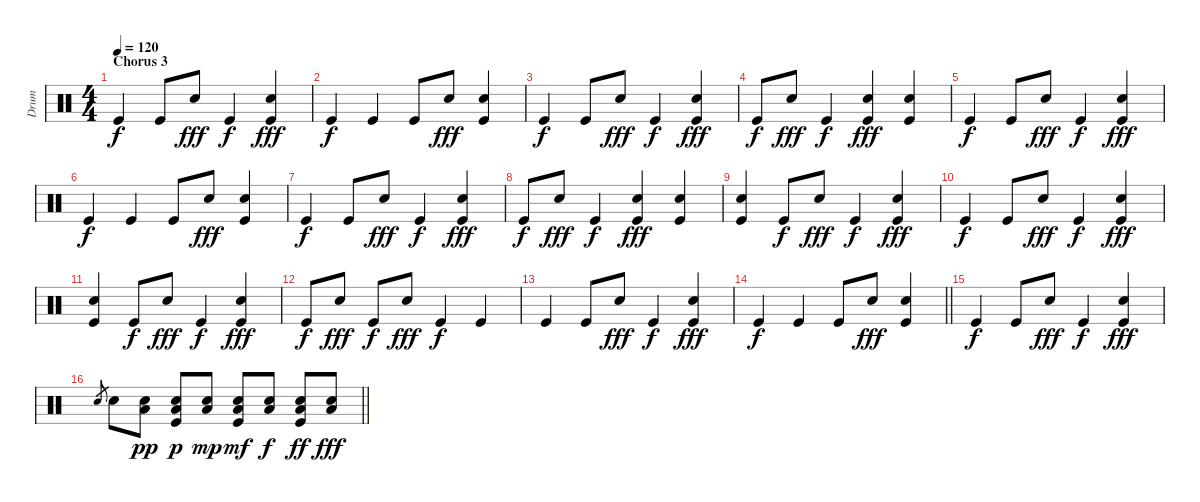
\track ("Drum" "Drum") {instrument percussion}
\staff {score}
\articulation defaults
\ts (4 4)
\section ("" "Chorus 3")
\tempo 120
\clef neutral
\ks c "Kick (hit)".4{dy f} "Kick (hit)".8 "Electric Snare (hit)".8{dy fff} "Kick (hit)".4{dy f}
("Kick (hit)" "Electric Snare (hit)").4{dy fff} |
"Kick (hit)".4{dy f} "Kick (hit)".4 "Kick (hit)".8 "Electric Snare (hit)".8{dy fff} ("Kick (hit)" "Electric Snare (hit)").4 |
"Kick (hit)".4{dy f} "Kick (hit)".8 "Electric Snare (hit)".8{dy fff} "Kick (hit)".4{dy f} ("Kick (hit)" "Electric Snare (hit)").4{dy fff} |
"Kick (hit)".8{dy f} "Electric Snare (hit)".8{dy fff} "Kick (hit)".4{dy f} ("Kick (hit)" "Electric Snare (hit)").4{dy fff} ("Kick (hit)" "Electric Snare (hit)").4 |
"Kick (hit)".4{dy f} "Kick (hit)".8 "Electric Snare (hit)".8{dy fff} "Kick (hit)".4{dy f} ("Kick (hit)" "Electric Snare (hit)").4{dy fff} |
"Kick (hit)".4{dy f} "Kick (hit)".4 "Kick (hit)".8 "Electric Snare (hit)".8{dy fff} ("Kick (hit)" "Electric Snare (hit)").4 |
"Kick (hit)".4{dy f} "Kick (hit)".8 "Electric Snare (hit)".8{dy fff} "Kick (hit)".4{dy f} ("Kick (hit)" "Electric Snare (hit)").4{dy fff} |
"Kick (hit)".8{dy f} "Electric Snare (hit)".8{dy fff} "Kick (hit)".4{dy f} ("Kick (hit)" "Electric Snare (hit)").4{dy fff} ("Kick (hit)" "Electric Snare (hit)").4 |
("Kick (hit)" "Electric Snare (hit)").4 "Kick (hit)".8{dy f} "Electric Snare (hit)".8{dy fff} "Kick (hit)".4{dy f} ("Kick (hit)" "Electric Snare (hit)").4{dy fff} |
"Kick (hit)".4{dy f} "Kick (hit)".8 "Electric Snare (hit)".8{dy fff} "Kick (hit)".4{dy f} ("Kick (hit)" "Electric Snare (hit)").4{dy fff} |
("Kick (hit)" "Electric Snare (hit)").4 "Kick (hit)".8{dy f} "Electric Snare (hit)".8{dy fff} "Kick (hit)".4{dy f} ("Kick (hit)" "Electric Snare (hit)").4{dy fff} |
"Kick (hit)".8{dy f} "Electric Snare (hit)".8{dy fff} "Kick (hit)".8{dy f} "Electric Snare (hit)".8{dy fff} "Kick (hit)".4{dy f} "Kick (hit)".4 |
"Kick (hit)".4 "Kick (hit)".8 "Electric Snare (hit)".8{dy fff} "Kick (hit)".4{dy f} ("Kick (hit)" "Electric Snare (hit)").4{dy fff} |
\barLineRight lightlight "Kick (hit)".4{dy f} "Kick (hit)".4 "Kick (hit)".8 "Electric Snare (hit)".8{dy fff}
("Kick (hit)" "Electric Snare (hit)").4 |
\section ("" "")
"Kick (hit)".4{dy f} "Kick (hit)".8 "Electric Snare (hit)".8{dy fff} "Kick (hit)".4{dy f} ("Kick (hit)" "Electric Snare (hit)").4{dy fff} |
\barLineRight lightlight "Electric Snare (hit)".8{gr} "Electric Snare (hit)".8
("Low Floor Tom (hit)" "Electric Snare (hit)").8{dy pp} ("Low Floor Tom (hit)" "Electric Snare (hit)" "Kick (hit)").8{dy p} ("Low Floor Tom (hit)" "Electric Snare (hit)").8{dy mp} ("Low Floor Tom (hit)" "Electric Snare (hit)" "Kick (hit)").8{dy mf} ("Low Floor Tom (hit)" "Electric Snare (hit)").8{dy f} ("Low Floor Tom (hit)" "Electric Snare (hit)" "Kick (hit)").8{dy ff} ("Low Floor Tom (hit)" "Electric Snare (hit)").8{dy fff}
